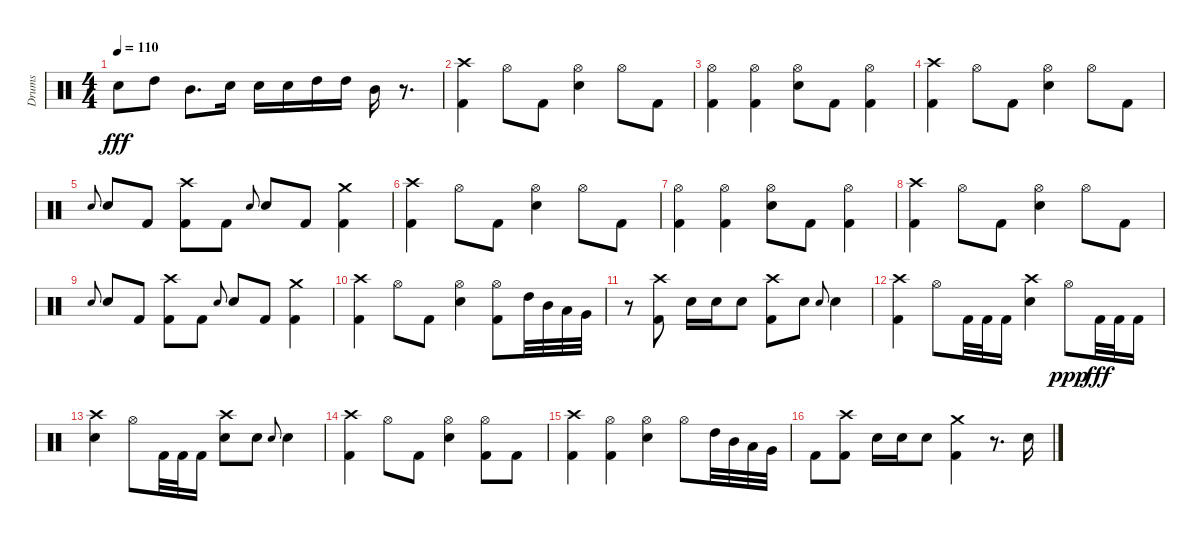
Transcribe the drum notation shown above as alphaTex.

\track ("Drums" "Drums") {instrument percussion}
\staff {score}
\articulation defaults
\ts (4 4)
\tempo 110
\clef neutral
\ks c "Snare (hit) 2".8{dy fff} "High Tom (hit)".8 "Mid Tom (hit)".8{d} "Snare (hit) 2".16 "Snare (hit) 2".16 "Snare (hit) 2".16 "High Tom (hit)".16 "High Tom (hit)".16 "Mid Tom (hit)".16
r.8{d} |
("Kick (hit) 2" "Crash high (hit)").4 "Hi-Hat (open)".8 "Kick (hit) 2".8 ("Hi-Hat (open)" "Snare (hit) 2").4 "Hi-Hat (open)".8 "Kick (hit) 2".8 |
("Kick (hit) 2" "Hi-Hat (open)").4 ("Hi-Hat (open)" "Kick (hit) 2").4 ("Hi-Hat (open)" "Snare (hit) 2").8 "Kick (hit) 2".8 ("Hi-Hat (open)" "Kick (hit) 2").4 |
("Kick (hit) 2" "Crash high (hit)").4 "Hi-Hat (open)".8 "Kick (hit) 2".8 ("Hi-Hat (open)" "Snare (hit) 2").4 "Hi-Hat (open)".8 "Kick (hit) 2".8 |
"Snare (hit) 2".8{gr onbeat} "Snare (hit) 2".8 "Kick (hit) 2".8 ("Kick (hit) 2" "Crash high (hit)").8 "Kick (hit) 2".8 "Snare (hit) 2".8{gr onbeat} "Snare (hit) 2".8 "Kick (hit) 2".8 ("Kick (hit) 2" "Crash medium (hit)").4 |
("Kick (hit) 2" "Crash high (hit)").4 "Hi-Hat (open)".8 "Kick (hit) 2".8 ("Hi-Hat (open)" "Snare (hit) 2").4 "Hi-Hat (open)".8 "Kick (hit) 2".8 |
("Kick (hit) 2" "Hi-Hat (open)").4 ("Hi-Hat (open)" "Kick (hit) 2").4 ("Hi-Hat (open)" "Snare (hit) 2").8 "Kick (hit) 2".8 ("Hi-Hat (open)" "Kick (hit) 2").4 |
("Kick (hit) 2" "Crash high (hit)").4 "Hi-Hat (open)".8 "Kick (hit) 2".8 ("Hi-Hat (open)" "Snare (hit) 2").4 "Hi-Hat (open)".8 "Kick (hit) 2".8 |
"Snare (hit) 2".8{gr onbeat} "Snare (hit) 2".8 "Kick (hit) 2".8 ("Kick (hit) 2" "Crash high (hit)").8 "Kick (hit) 2".8 "Snare (hit) 2".8{gr onbeat} "Snare (hit) 2".8 "Kick (hit) 2".8 ("Kick (hit) 2" "Crash medium (hit)").4 |
("Crash high (hit)" "Kick (hit) 2").4 "Hi-Hat (open)".8 "Kick (hit) 2".8 ("Hi-Hat (open)" "Snare (hit) 2").4 ("Hi-Hat (open)" "Kick (hit) 2").8 "High Tom (hit)".32 "Mid Tom (hit)".32 "Low Tom (hit)".32 "Very Low Tom (hit)".32 |
r.8 ("Kick (hit) 2" "Crash high (hit)").8 "Snare (hit) 2".16 "Snare (hit) 2".16 "Snare (hit) 2".8 ("Crash high (hit)" "Kick (hit) 2").8 "Snare (hit) 2".8 "Snare (hit) 2".8{gr onbeat} "Snare (hit) 2".4 |
("Kick (hit) 2" "Crash high (hit)").4 "Hi-Hat (open)".8 "Kick (hit) 2".32 "Kick (hit) 2".32 "Kick (hit) 2".16 ("Snare (hit) 2" "Crash high (hit)").4 "Hi-Hat (open)".8{dy ppp} "Kick (hit) 2".32{dy fff} "Kick (hit) 2".32 "Kick (hit) 2".16 |
("Snare (hit) 2" "Crash high (hit)").4 "Hi-Hat (open)".8 "Kick (hit) 2".32 "Kick (hit) 2".32 "Kick (hit) 2".16 ("Snare (hit) 2" "Crash high (hit)").8 "Snare (hit) 2".8 "Snare (hit) 2".8{gr onbeat} "Snare (hit) 2".4 |
("Crash high (hit)" "Kick (hit) 2").4 "Hi-Hat (open)".8 "Kick (hit) 2".8 ("Hi-Hat (open)" "Snare (hit) 2").4 ("Hi-Hat (open)" "Kick (hit) 2").8 "Kick (hit) 2".8 |
("Kick (hit) 2" "Crash high (hit)").4 ("Hi-Hat (open)" "Kick (hit) 2").4 ("Hi-Hat (open)" "Snare (hit) 2").4 "Hi-Hat (open)".8 "High Tom (hit)".32 "Mid Tom (hit)".32 "Low Tom (hit)".32 "Very Low Tom (hit)".32 |
"Kick (hit) 2".8 ("Kick (hit) 2" "Crash high (hit)").8 "Snare (hit) 2".16 "Snare (hit) 2".16 "Snare (hit) 2".8 ("Kick (hit) 2" "Crash medium (hit)").4 r.8{d} "Snare (hit) 2".16
